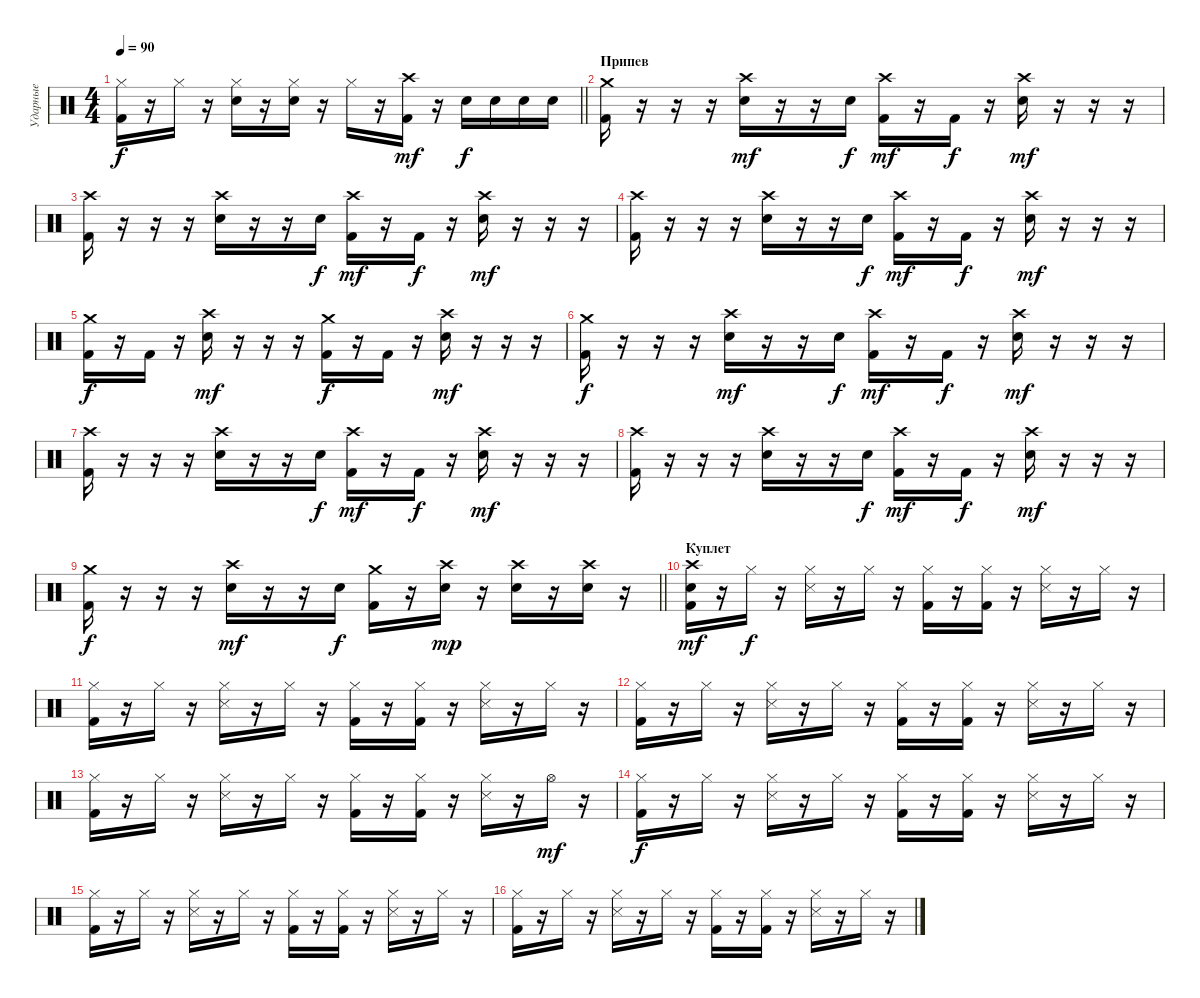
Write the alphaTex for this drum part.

\track ("Ударные" "Ударные") {instrument percussion}
\staff {score}
\articulation defaults
\ts (4 4)
\tempo 90
\clef neutral
\barLineRight lightlight
\ks c
("Hi-Hat (closed)" "Kick (hit) 2").16{dy f} r.16 "Hi-Hat (closed)".16 r.16 ("Hi-Hat (closed)" "Electric Snare (hit)").16 r.16 ("Hi-Hat (closed)" "Electric Snare (hit)").16 r.16 "Hi-Hat (closed)".16 r.16 ("Crash high (hit)" "Kick (hit) 2").16{dy mf} r.16 "Electric Snare (hit)".16{dy f} "Electric Snare (hit)".16 "Electric Snare (hit)".16 "Electric Snare (hit)".16 |
\section ("" "Припев")
("Crash medium (hit)" "Kick (hit) 2").16 r.16 r.16 r.16 ("Crash high (hit)" "Electric Snare (hit)").16{dy mf} r.16 r.16 "Electric Snare (hit)".16{dy f} ("Crash high (hit)" "Kick (hit) 2").16{dy mf} r.16 "Kick (hit) 2".16{dy f} r.16 ("Crash high (hit)" "Electric Snare (hit)").16{dy mf} r.16 r.16 r.16 |
("Crash high (hit)" "Kick (hit) 2").16 r.16 r.16 r.16 ("Crash high (hit)" "Electric Snare (hit)").16 r.16 r.16 "Electric Snare (hit)".16{dy f} ("Crash high (hit)" "Kick (hit) 2").16{dy mf} r.16 "Kick (hit) 2".16{dy f} r.16 ("Crash high (hit)" "Electric Snare (hit)").16{dy mf} r.16 r.16 r.16 |
("Crash high (hit)" "Kick (hit) 2").16 r.16 r.16 r.16 ("Crash high (hit)" "Electric Snare (hit)").16 r.16 r.16 "Electric Snare (hit)".16{dy f} ("Crash high (hit)" "Kick (hit) 2").16{dy mf} r.16 "Kick (hit) 2".16{dy f} r.16 ("Crash high (hit)" "Electric Snare (hit)").16{dy mf} r.16 r.16 r.16 |
("Crash medium (hit)" "Kick (hit) 2").16{dy f} r.16 "Kick (hit) 2".16 r.16 ("Crash high (hit)" "Electric Snare (hit)").16{dy mf} r.16 r.16 r.16 ("Crash medium (hit)" "Kick (hit) 2").16{dy f} r.16 "Kick (hit) 2".16 r.16 ("Crash high (hit)" "Electric Snare (hit)").16{dy mf} r.16 r.16 r.16 |
("Crash medium (hit)" "Kick (hit) 2").16{dy f} r.16 r.16 r.16 ("Crash high (hit)" "Electric Snare (hit)").16{dy mf} r.16 r.16 "Electric Snare (hit)".16{dy f} ("Crash high (hit)" "Kick (hit) 2").16{dy mf} r.16 "Kick (hit) 2".16{dy f} r.16 ("Crash high (hit)" "Electric Snare (hit)").16{dy mf} r.16 r.16 r.16 |
("Crash high (hit)" "Kick (hit) 2").16 r.16 r.16 r.16 ("Crash high (hit)" "Electric Snare (hit)").16 r.16 r.16 "Electric Snare (hit)".16{dy f} ("Crash high (hit)" "Kick (hit) 2").16{dy mf} r.16 "Kick (hit) 2".16{dy f} r.16 ("Crash high (hit)" "Electric Snare (hit)").16{dy mf} r.16 r.16 r.16 |
("Crash high (hit)" "Kick (hit) 2").16 r.16 r.16 r.16 ("Crash high (hit)" "Electric Snare (hit)").16 r.16 r.16 "Electric Snare (hit)".16{dy f} ("Crash high (hit)" "Kick (hit) 2").16{dy mf} r.16 "Kick (hit) 2".16{dy f} r.16 ("Crash high (hit)" "Electric Snare (hit)").16{dy mf} r.16 r.16 r.16 |
\barLineRight lightlight
("Crash medium (hit)" "Kick (hit) 2").16{dy f} r.16 r.16 r.16 ("Crash high (hit)" "Electric Snare (hit)").16{dy mf} r.16 r.16 "Electric Snare (hit)".16{dy f} ("Crash medium (hit)" "Kick (hit) 2").16 r.16 ("Crash high (hit)" "Electric Snare (hit)").16{dy mp} r.16 ("Crash high (hit)" "Electric Snare (hit)").16 r.16 ("Crash high (hit)" "Electric Snare (hit)").16 r.16 |
\section ("" "Куплет")
("Crash high (hit)" "Electric Snare (hit)" "Kick (hit) 2").16{dy mf} r.16 "Hi-Hat (closed)".16{dy f} r.16 ("Hi-Hat (closed)" "Snare (side stick) 3").16 r.16 "Hi-Hat (closed)".16 r.16 ("Hi-Hat (closed)" "Kick (hit) 2").16 r.16 ("Hi-Hat (closed)" "Kick (hit) 2").16 r.16 ("Hi-Hat (closed)" "Snare (side stick) 3").16 r.16 "Hi-Hat (closed)".16 r.16 |
("Hi-Hat (closed)" "Kick (hit) 2").16 r.16 "Hi-Hat (closed)".16 r.16 ("Hi-Hat (closed)" "Snare (side stick) 3").16 r.16 "Hi-Hat (closed)".16 r.16 ("Hi-Hat (closed)" "Kick (hit) 2").16 r.16 ("Hi-Hat (closed)" "Kick (hit) 2").16 r.16 ("Hi-Hat (closed)" "Snare (side stick) 3").16 r.16 "Hi-Hat (closed)".16 r.16 |
("Hi-Hat (closed)" "Kick (hit) 2").16 r.16 "Hi-Hat (closed)".16 r.16 ("Hi-Hat (closed)" "Snare (side stick) 3").16 r.16 "Hi-Hat (closed)".16 r.16 ("Hi-Hat (closed)" "Kick (hit) 2").16 r.16 ("Hi-Hat (closed)" "Kick (hit) 2").16 r.16 ("Hi-Hat (closed)" "Snare (side stick) 3").16 r.16 "Hi-Hat (closed)".16 r.16 |
("Hi-Hat (closed)" "Kick (hit) 2").16 r.16 "Hi-Hat (closed)".16 r.16 ("Hi-Hat (closed)" "Snare (side stick) 3").16 r.16 "Hi-Hat (closed)".16 r.16 ("Hi-Hat (closed)" "Kick (hit) 2").16 r.16 ("Hi-Hat (closed)" "Kick (hit) 2").16 r.16 ("Hi-Hat (closed)" "Snare (side stick) 3").16 r.16 "Hi-Hat (open)".16{dy mf} r.16 |
("Hi-Hat (closed)" "Kick (hit) 2").16{dy f} r.16 "Hi-Hat (closed)".16 r.16 ("Hi-Hat (closed)" "Snare (side stick) 3").16 r.16 "Hi-Hat (closed)".16 r.16 ("Hi-Hat (closed)" "Kick (hit) 2").16 r.16 ("Hi-Hat (closed)" "Kick (hit) 2").16 r.16 ("Hi-Hat (closed)" "Snare (side stick) 3").16 r.16 "Hi-Hat (closed)".16 r.16 |
("Hi-Hat (closed)" "Kick (hit) 2").16 r.16 "Hi-Hat (closed)".16 r.16 ("Hi-Hat (closed)" "Snare (side stick) 3").16 r.16 "Hi-Hat (closed)".16 r.16 ("Hi-Hat (closed)" "Kick (hit) 2").16 r.16 ("Hi-Hat (closed)" "Kick (hit) 2").16 r.16 ("Hi-Hat (closed)" "Snare (side stick) 3").16 r.16 "Hi-Hat (closed)".16 r.16 |
("Hi-Hat (closed)" "Kick (hit) 2").16 r.16 "Hi-Hat (closed)".16 r.16 ("Hi-Hat (closed)" "Snare (side stick) 3").16 r.16 "Hi-Hat (closed)".16 r.16 ("Hi-Hat (closed)" "Kick (hit) 2").16 r.16 ("Hi-Hat (closed)" "Kick (hit) 2").16 r.16 ("Hi-Hat (closed)" "Snare (side stick) 3").16 r.16 "Hi-Hat (closed)".16 r.16
